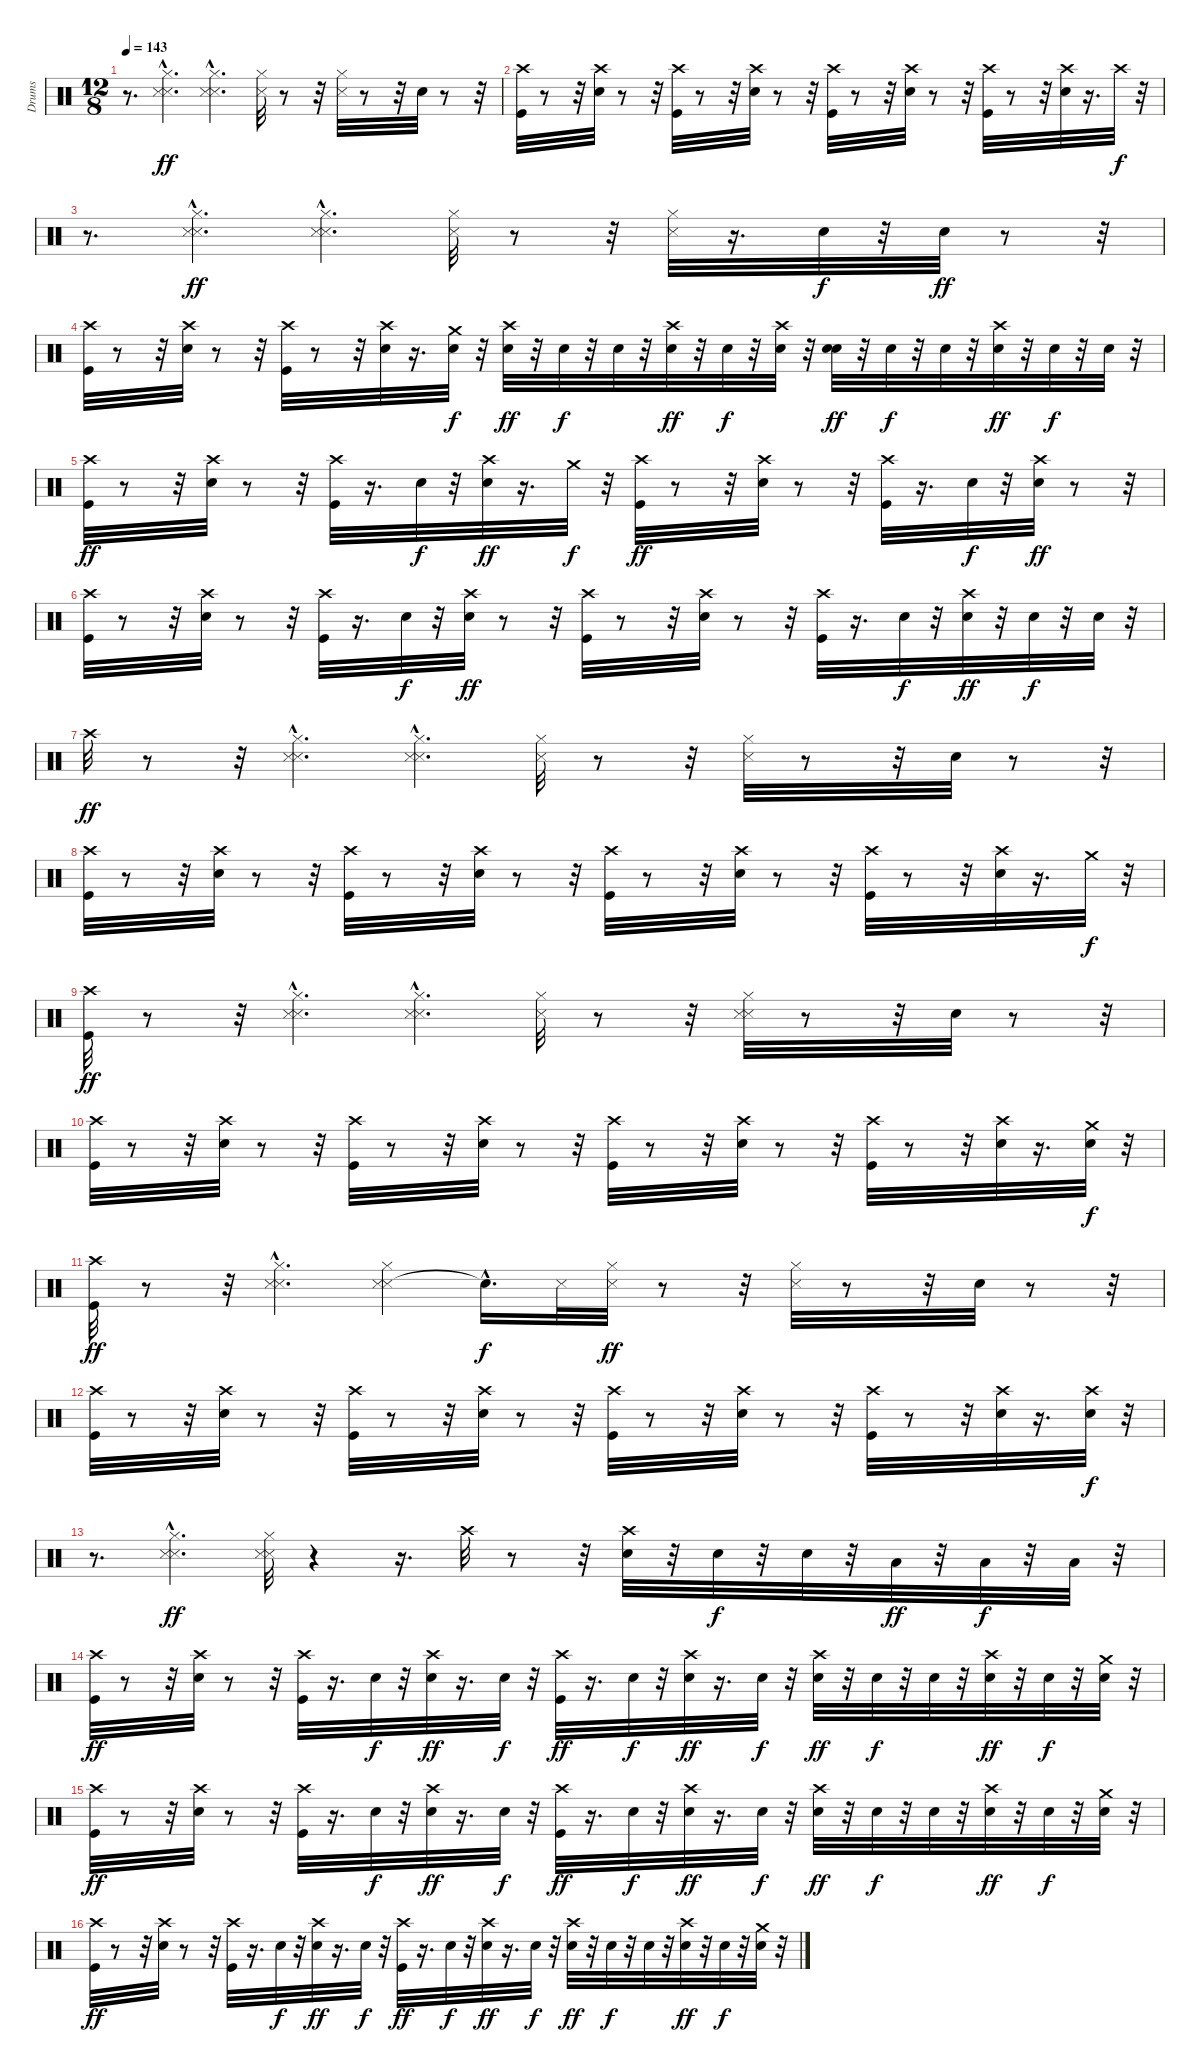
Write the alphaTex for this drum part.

\track ("Drums" "Drums") {instrument percussion}
\staff {score}
\articulation defaults
\ts (12 8)
\tempo 143
\clef neutral
\ks c
r.8{d dy f} ("Metronome (hit)"{hac} "Metronome (hit)" "Hi-Hat (closed)").4{d dy ff} ("Metronome (hit)"{hac} "Metronome (hit)" "Hi-Hat (closed)").4{d} ("Hi-Hat (closed)" "Metronome (hit)").32 r.8 r.32 ("Metronome (hit)" "Hi-Hat (closed)").32 r.8 r.32 "Snare (hit) 2".32 r.8 r.32 |
("Crash high (hit)" "Kick (hit)").32 r.8 r.32 ("Crash high (hit)" "Snare (hit) 2").32 r.8 r.32 ("Crash high (hit)" "Kick (hit)").32 r.8 r.32 ("Crash high (hit)" "Snare (hit) 2").32 r.8 r.32 ("Crash high (hit)" "Kick (hit)").32 r.8 r.32 ("Crash high (hit)" "Snare (hit) 2").32 r.8 r.32 ("Crash high (hit)" "Kick (hit)").32 r.8 r.32 ("Crash high (hit)" "Snare (hit) 2").32 r.16{d} "Crash high (hit)".32{dy f} r.32 |
r.8{d} ("Metronome (hit)"{hac} "Metronome (hit)" "Hi-Hat (closed)").4{d dy ff} ("Metronome (hit)"{hac} "Metronome (hit)" "Hi-Hat (closed)").4{d} ("Metronome (hit)" "Hi-Hat (closed)").32 r.8 r.32 ("Hi-Hat (closed)" "Metronome (hit)").32 r.16{d} "Snare (hit) 2".32{dy f} r.32 "Snare (hit) 2".32{dy ff} r.8 r.32 |
("Crash high (hit)" "Kick (hit)").32 r.8 r.32 ("Crash high (hit)" "Snare (hit) 2").32 r.8 r.32 ("Crash high (hit)" "Kick (hit)").32 r.8 r.32 ("Crash high (hit)" "Snare (hit) 2").32 r.16{d} ("Crash medium (hit)" "Snare (hit) 2").32{dy f} r.32 ("Electric Snare (hit)" "Crash high (hit)").32{dy ff} r.32 "Snare (hit) 2".32{dy f} r.32 "Snare (hit) 2".32 r.32 ("Snare (hit) 2" "Crash high (hit)").32{dy ff} r.32 "Snare (hit) 2".32{dy f} r.32 ("Snare (hit) 2" "Crash high (hit)").32 r.32 ("Snare (hit) 2" "Electric Snare (hit)").32{dy ff} r.32 "Snare (hit) 2".32{dy f} r.32 "Snare (hit) 2".32 r.32 ("Snare (hit) 2" "Crash high (hit)").32{dy ff} r.32 "Snare (hit) 2".32{dy f} r.32 "Snare (hit) 2".32 r.32 |
("Kick (hit)" "Crash high (hit)").32{dy ff} r.8 r.32 ("Snare (hit) 2" "Crash high (hit)").32 r.8 r.32 ("Kick (hit)" "Crash high (hit)").32 r.16{d} "Snare (hit) 2".32{dy f} r.32 ("Snare (hit) 2" "Crash high (hit)").32{dy ff} r.16{d} "Crash medium (hit)".32{dy f} r.32 ("Kick (hit)" "Crash high (hit)").32{dy ff} r.8 r.32 ("Snare (hit) 2" "Crash high (hit)").32 r.8 r.32 ("Kick (hit)" "Crash high (hit)").32 r.16{d} "Snare (hit) 2".32{dy f} r.32 ("Snare (hit) 2" "Crash high (hit)").32{dy ff} r.8 r.32 |
("Kick (hit)" "Crash high (hit)").32 r.8 r.32 ("Snare (hit) 2" "Crash high (hit)").32 r.8 r.32 ("Kick (hit)" "Crash high (hit)").32 r.16{d} "Snare (hit) 2".32{dy f} r.32 ("Snare (hit) 2" "Crash high (hit)").32{dy ff} r.8 r.32 ("Kick (hit)" "Crash high (hit)").32 r.8 r.32 ("Snare (hit) 2" "Crash high (hit)").32 r.8 r.32 ("Kick (hit)" "Crash high (hit)").32 r.16{d} "Electric Snare (hit)".32{dy f} r.32 ("Snare (hit) 2" "Crash high (hit)").32{dy ff} r.32 "Snare (hit) 2".32{dy f} r.32 "Snare (hit) 2".32 r.32 |
"Crash high (hit)".32{dy ff} r.8 r.32 ("Metronome (hit)"{hac} "Metronome (hit)" "Hi-Hat (closed)").4{d} ("Metronome (hit)"{hac} "Metronome (hit)" "Hi-Hat (closed)").4{d} ("Metronome (hit)" "Hi-Hat (closed)").32 r.8 r.32 ("Metronome (hit)" "Hi-Hat (closed)").32 r.8 r.32 "Snare (hit) 2".32 r.8 r.32 |
("Crash high (hit)" "Kick (hit)").32 r.8 r.32 ("Crash high (hit)" "Snare (hit) 2").32 r.8 r.32 ("Crash high (hit)" "Kick (hit)").32 r.8 r.32 ("Crash high (hit)" "Snare (hit) 2").32 r.8 r.32 ("Crash high (hit)" "Kick (hit)").32 r.8 r.32 ("Crash high (hit)" "Snare (hit) 2").32 r.8 r.32 ("Crash high (hit)" "Kick (hit)").32 r.8 r.32 ("Crash high (hit)" "Snare (hit) 2").32 r.16{d} "Crash medium (hit)".32{dy f} r.32 |
("Kick (hit)" "Crash high (hit)").32{dy ff} r.8 r.32 ("Metronome (hit)"{hac} "Metronome (hit)" "Hi-Hat (closed)").4{d} ("Metronome (hit)"{hac} "Metronome (hit)" "Hi-Hat (closed)").4{d} ("Metronome (hit)" "Hi-Hat (closed)").32 r.8 r.32 ("Metronome (hit)" "Hi-Hat (closed)" "Metronome (hit)").32 r.8 r.32 "Snare (hit) 2".32 r.8 r.32 |
("Crash high (hit)" "Kick (hit)").32 r.8 r.32 ("Crash high (hit)" "Snare (hit) 2").32 r.8 r.32 ("Crash high (hit)" "Kick (hit)").32 r.8 r.32 ("Crash high (hit)" "Snare (hit) 2").32 r.8 r.32 ("Crash high (hit)" "Kick (hit)").32 r.8 r.32 ("Crash high (hit)" "Snare (hit) 2").32 r.8 r.32 ("Crash high (hit)" "Kick (hit)").32 r.8 r.32 ("Crash high (hit)" "Snare (hit) 2").32 r.16{d} ("Crash medium (hit)" "Snare (hit) 2").32{dy f} r.32 |
("Kick (hit)" "Crash high (hit)").32{dy ff} r.8 r.32 ("Metronome (hit)"{hac} "Metronome (hit)" "Hi-Hat (closed)").4{d} ("Metronome (hit)" "Metronome (hit)" "Hi-Hat (closed)").4 "Snare (hit)"{hac t}.16{d dy f} "Metronome (hit)".32 ("Metronome (hit)" "Hi-Hat (closed)").32{dy ff} r.8 r.32 ("Metronome (hit)" "Hi-Hat (closed)").32 r.8 r.32 "Snare (hit) 2".32 r.8 r.32 |
("Crash high (hit)" "Kick (hit)").32 r.8 r.32 ("Crash high (hit)" "Snare (hit) 2").32 r.8 r.32 ("Crash high (hit)" "Kick (hit)").32 r.8 r.32 ("Crash high (hit)" "Snare (hit) 2").32 r.8 r.32 ("Crash high (hit)" "Kick (hit)").32 r.8 r.32 ("Crash high (hit)" "Snare (hit) 2").32 r.8 r.32 ("Crash high (hit)" "Kick (hit)").32 r.8 r.32 ("Crash high (hit)" "Snare (hit) 2").32 r.16{d} ("Snare (hit) 2" "Crash high (hit)").32{dy f} r.32 |
r.8{d} ("Metronome (hit)"{hac} "Metronome (hit)" "Hi-Hat (closed)").4{d dy ff} ("Metronome (hit)" "Hi-Hat (closed)" "Metronome (hit)").32 r.4 r.16{d} "Crash high (hit)".32 r.8 r.32 ("Snare (hit) 2" "Crash high (hit)").32 r.32 "Snare (hit) 2".32{dy f} r.32 "Snare (hit) 2".32 r.32 "Low Tom (hit)".32{dy ff} r.32 "Low Tom (hit)".32{dy f} r.32 "Low Tom (hit)".32 r.32 |
("Crash high (hit)" "Kick (hit)").32{dy ff} r.8 r.32 ("Crash high (hit)" "Snare (hit) 2").32 r.8 r.32 ("Crash high (hit)" "Kick (hit)").32 r.16{d} "Snare (hit) 2".32{dy f} r.32 ("Crash high (hit)" "Snare (hit) 2").32{dy ff} r.16{d} "Snare (hit) 2".32{dy f} r.32 ("Crash high (hit)" "Kick (hit)").32{dy ff} r.16{d} "Snare (hit) 2".32{dy f} r.32 ("Crash high (hit)" "Snare (hit) 2").32{dy ff} r.16{d} "Snare (hit) 2".32{dy f} r.32 ("Snare (hit) 2" "Crash high (hit)").32{dy ff} r.32 "Snare (hit) 2".32{dy f} r.32 "Snare (hit) 2".32 r.32 ("Crash high (hit)" "Snare (hit) 2").32{dy ff} r.32 "Snare (hit) 2".32{dy f} r.32 ("Crash medium (hit)" "Snare (hit) 2").32 r.32 |
("Crash high (hit)" "Kick (hit)").32{dy ff} r.8 r.32 ("Crash high (hit)" "Snare (hit) 2").32 r.8 r.32 ("Crash high (hit)" "Kick (hit)").32 r.16{d} "Snare (hit) 2".32{dy f} r.32 ("Crash high (hit)" "Snare (hit) 2").32{dy ff} r.16{d} "Snare (hit) 2".32{dy f} r.32 ("Crash high (hit)" "Kick (hit)").32{dy ff} r.16{d} "Snare (hit) 2".32{dy f} r.32 ("Crash high (hit)" "Snare (hit) 2").32{dy ff} r.16{d} "Snare (hit) 2".32{dy f} r.32 ("Snare (hit) 2" "Crash high (hit)").32{dy ff} r.32 "Snare (hit) 2".32{dy f} r.32 "Snare (hit) 2".32 r.32 ("Crash high (hit)" "Snare (hit) 2").32{dy ff} r.32 "Snare (hit) 2".32{dy f} r.32 ("Crash medium (hit)" "Snare (hit) 2").32 r.32 |
("Crash high (hit)" "Kick (hit)").32{dy ff} r.8 r.32 ("Crash high (hit)" "Snare (hit) 2").32 r.8 r.32 ("Crash high (hit)" "Kick (hit)").32 r.16{d} "Snare (hit) 2".32{dy f} r.32 ("Crash high (hit)" "Snare (hit) 2").32{dy ff} r.16{d} "Snare (hit) 2".32{dy f} r.32 ("Crash high (hit)" "Kick (hit)").32{dy ff} r.16{d} "Snare (hit) 2".32{dy f} r.32 ("Crash high (hit)" "Snare (hit) 2").32{dy ff} r.16{d} "Snare (hit) 2".32{dy f} r.32 ("Snare (hit) 2" "Crash high (hit)").32{dy ff} r.32 "Snare (hit) 2".32{dy f} r.32 "Snare (hit) 2".32 r.32 ("Crash high (hit)" "Snare (hit) 2").32{dy ff} r.32 "Snare (hit) 2".32{dy f} r.32 ("Crash medium (hit)" "Snare (hit) 2").32 r.32
